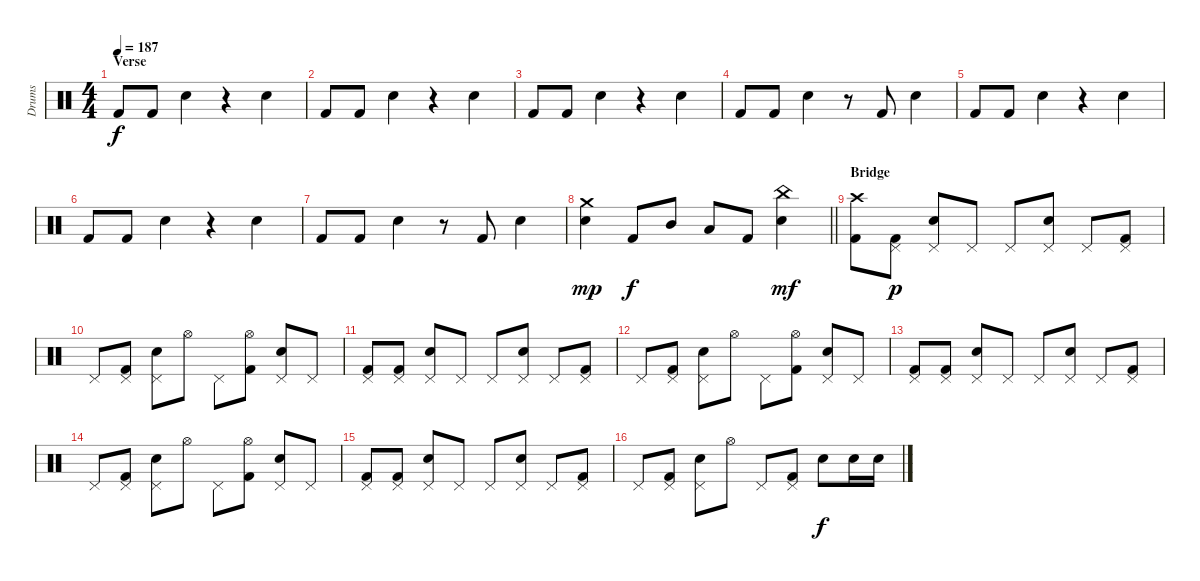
\track ("Drums" "Drums") {instrument percussion}
\staff {score}
\articulation defaults
\ts (4 4)
\section ("" "Verse")
\tempo 187
\clef neutral
\ks c "Kick (hit) 2".8{dy f} "Kick (hit) 2".8 "Electric Snare (hit)".4
r.4 "Electric Snare (hit)".4 |
"Kick (hit) 2".8 "Kick (hit) 2".8 "Electric Snare (hit)".4 r.4 "Electric Snare (hit)".4 |
"Kick (hit) 2".8 "Kick (hit) 2".8 "Electric Snare (hit)".4 r.4 "Electric Snare (hit)".4 |
"Kick (hit) 2".8 "Kick (hit) 2".8 "Electric Snare (hit)".4 r.8 "Kick (hit) 2".8 "Electric Snare (hit)".4 |
"Kick (hit) 2".8 "Kick (hit) 2".8 "Electric Snare (hit)".4 r.4 "Electric Snare (hit)".4 |
"Kick (hit) 2".8 "Kick (hit) 2".8 "Electric Snare (hit)".4 r.4 "Electric Snare (hit)".4 |
"Kick (hit) 2".8 "Kick (hit) 2".8 "Electric Snare (hit)".4 r.8 "Kick (hit) 2".8 "Electric Snare (hit)".4 |
\barLineRight lightlight
("Crash medium (hit)" "Electric Snare (hit)").4{dy mp} "Kick (hit) 2".8{dy f} "Mid Tom (hit)".8 "Low Tom (hit)".8 "Kick (hit) 2".8 ("China (hit)" "Electric Snare (hit)").4{dy mf} |
\section ("" "Bridge")
("Crash high (hit)" "Kick (hit) 2").8 ("Pedal Hi-Hat (hit)" "Kick (hit) 2").8{dy p} ("Pedal Hi-Hat (hit)" "Electric Snare (hit)").8 "Pedal Hi-Hat (hit)".8 "Pedal Hi-Hat (hit)".8 ("Pedal Hi-Hat (hit)" "Electric Snare (hit)").8 "Pedal Hi-Hat (hit)".8 ("Pedal Hi-Hat (hit)" "Kick (hit) 2").8 |
"Pedal Hi-Hat (hit)".8 ("Pedal Hi-Hat (hit)" "Kick (hit) 2").8 ("Pedal Hi-Hat (hit)" "Electric Snare (hit)").8 "Hi-Hat (open)".8 "Pedal Hi-Hat (hit)".8 ("Hi-Hat (open)" "Kick (hit) 2").8 ("Pedal Hi-Hat (hit)" "Electric Snare (hit)").8 "Pedal Hi-Hat (hit)".8 |
("Pedal Hi-Hat (hit)" "Kick (hit) 2").8 ("Pedal Hi-Hat (hit)" "Kick (hit) 2").8 ("Pedal Hi-Hat (hit)" "Electric Snare (hit)").8 "Pedal Hi-Hat (hit)".8 "Pedal Hi-Hat (hit)".8 ("Pedal Hi-Hat (hit)" "Electric Snare (hit)").8 "Pedal Hi-Hat (hit)".8 ("Pedal Hi-Hat (hit)" "Kick (hit) 2").8 |
"Pedal Hi-Hat (hit)".8 ("Pedal Hi-Hat (hit)" "Kick (hit) 2").8 ("Pedal Hi-Hat (hit)" "Electric Snare (hit)").8 "Hi-Hat (open)".8 "Pedal Hi-Hat (hit)".8 ("Hi-Hat (open)" "Kick (hit) 2").8 ("Pedal Hi-Hat (hit)" "Electric Snare (hit)").8 "Pedal Hi-Hat (hit)".8 |
("Pedal Hi-Hat (hit)" "Kick (hit) 2").8 ("Pedal Hi-Hat (hit)" "Kick (hit) 2").8 ("Pedal Hi-Hat (hit)" "Electric Snare (hit)").8 "Pedal Hi-Hat (hit)".8 "Pedal Hi-Hat (hit)".8 ("Pedal Hi-Hat (hit)" "Electric Snare (hit)").8 "Pedal Hi-Hat (hit)".8 ("Pedal Hi-Hat (hit)" "Kick (hit) 2").8 |
"Pedal Hi-Hat (hit)".8 ("Pedal Hi-Hat (hit)" "Kick (hit) 2").8 ("Pedal Hi-Hat (hit)" "Electric Snare (hit)").8 "Hi-Hat (open)".8 "Pedal Hi-Hat (hit)".8 ("Hi-Hat (open)" "Kick (hit) 2").8 ("Pedal Hi-Hat (hit)" "Electric Snare (hit)").8 "Pedal Hi-Hat (hit)".8 |
("Pedal Hi-Hat (hit)" "Kick (hit) 2").8 ("Pedal Hi-Hat (hit)" "Kick (hit) 2").8 ("Pedal Hi-Hat (hit)" "Electric Snare (hit)").8 "Pedal Hi-Hat (hit)".8 "Pedal Hi-Hat (hit)".8 ("Pedal Hi-Hat (hit)" "Electric Snare (hit)").8 "Pedal Hi-Hat (hit)".8 ("Pedal Hi-Hat (hit)" "Kick (hit) 2").8 |
"Pedal Hi-Hat (hit)".8 ("Pedal Hi-Hat (hit)" "Kick (hit) 2").8 ("Pedal Hi-Hat (hit)" "Electric Snare (hit)").8 "Hi-Hat (open)".8 "Pedal Hi-Hat (hit)".8 ("Pedal Hi-Hat (hit)" "Kick (hit) 2").8 "Electric Snare (hit)".8{dy f} "Electric Snare (hit)".16 "Electric Snare (hit)".16
